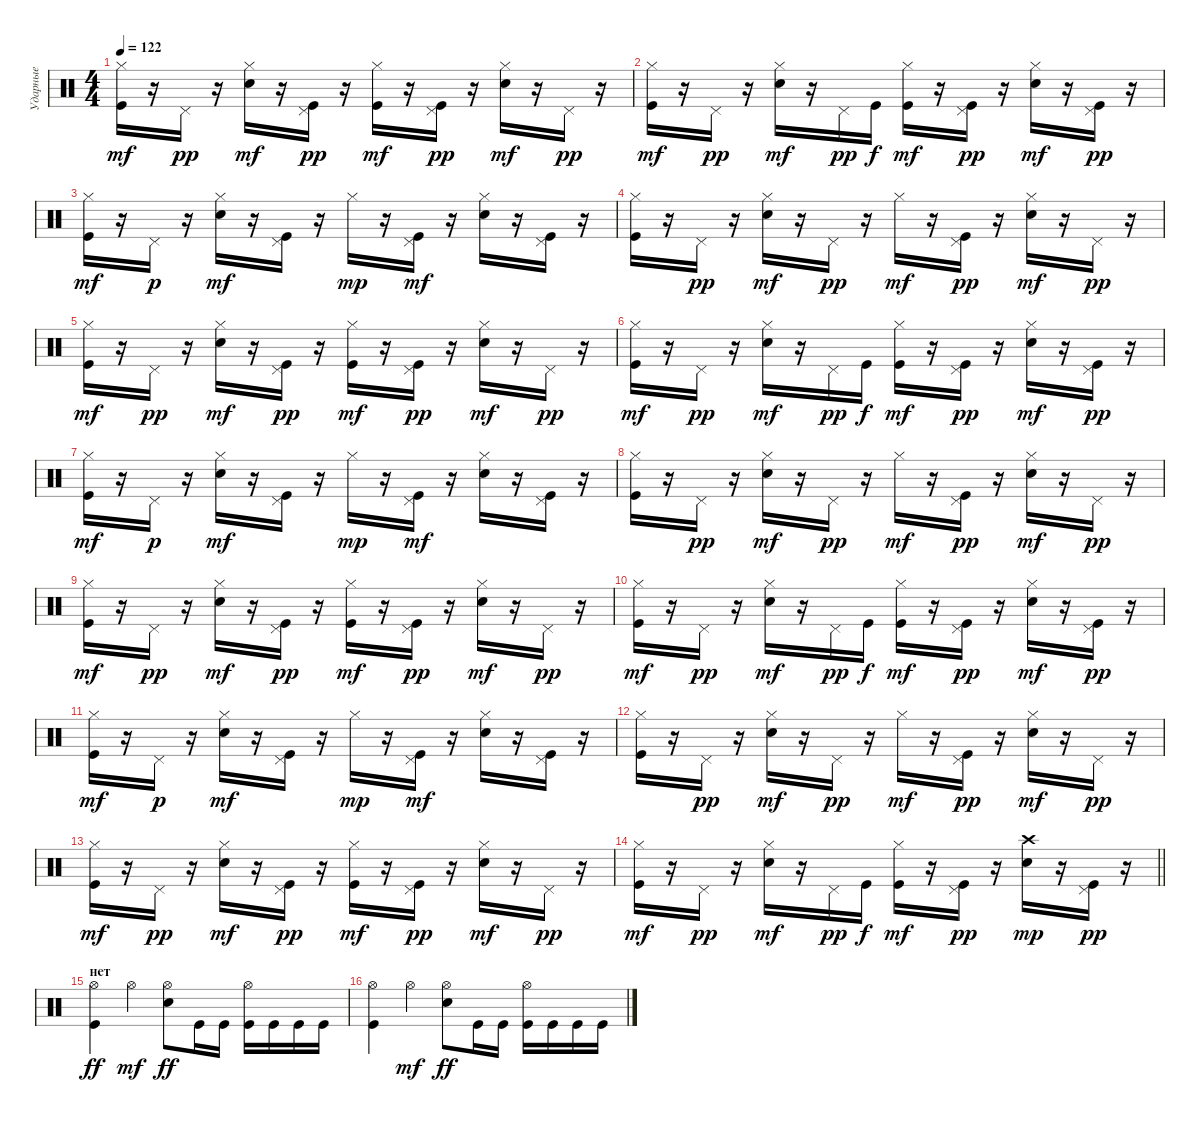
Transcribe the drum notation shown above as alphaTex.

\track ("Ударные" "Ударные") {instrument percussion}
\staff {score}
\articulation defaults
\ts (4 4)
\tempo 122
\clef neutral
\ks c
("Hi-Hat (closed)" "Kick (hit)").16{dy mf} r.16 "Pedal Hi-Hat (hit)".16{dy pp} r.16 ("Hi-Hat (closed)" "Electric Snare (hit)").16{dy mf} r.16 ("Pedal Hi-Hat (hit)" "Kick (hit)").16{dy pp} r.16 ("Hi-Hat (closed)" "Kick (hit)").16{dy mf} r.16 ("Pedal Hi-Hat (hit)" "Kick (hit)").16{dy pp} r.16 ("Hi-Hat (closed)" "Electric Snare (hit)").16{dy mf} r.16 "Pedal Hi-Hat (hit)".16{dy pp} r.16 |
("Hi-Hat (closed)" "Kick (hit)").16{dy mf} r.16 "Pedal Hi-Hat (hit)".16{dy pp} r.16 ("Hi-Hat (closed)" "Electric Snare (hit)").16{dy mf} r.16 "Pedal Hi-Hat (hit)".16{dy pp} "Kick (hit)".16{dy f} ("Hi-Hat (closed)" "Kick (hit)").16{dy mf} r.16 ("Pedal Hi-Hat (hit)" "Kick (hit)").16{dy pp} r.16 ("Hi-Hat (closed)" "Electric Snare (hit)").16{dy mf} r.16 ("Pedal Hi-Hat (hit)" "Kick (hit)").16{dy pp} r.16 |
("Hi-Hat (closed)" "Kick (hit)").16{dy mf} r.16 "Pedal Hi-Hat (hit)".16{dy p} r.16 ("Hi-Hat (closed)" "Electric Snare (hit)").16{dy mf} r.16 ("Pedal Hi-Hat (hit)" "Kick (hit)").16 r.16 "Hi-Hat (closed)".16{dy mp} r.16 ("Pedal Hi-Hat (hit)" "Kick (hit)").16{dy mf} r.16 ("Hi-Hat (closed)" "Electric Snare (hit)").16 r.16 ("Pedal Hi-Hat (hit)" "Kick (hit)").16 r.16 |
("Hi-Hat (closed)" "Kick (hit)").16 r.16 "Pedal Hi-Hat (hit)".16{dy pp} r.16 ("Hi-Hat (closed)" "Electric Snare (hit)").16{dy mf} r.16 "Pedal Hi-Hat (hit)".16{dy pp} r.16 "Hi-Hat (closed)".16{dy mf} r.16 ("Pedal Hi-Hat (hit)" "Kick (hit)").16{dy pp} r.16 ("Hi-Hat (closed)" "Electric Snare (hit)").16{dy mf} r.16 "Pedal Hi-Hat (hit)".16{dy pp} r.16 |
("Hi-Hat (closed)" "Kick (hit)").16{dy mf} r.16 "Pedal Hi-Hat (hit)".16{dy pp} r.16 ("Hi-Hat (closed)" "Electric Snare (hit)").16{dy mf} r.16 ("Pedal Hi-Hat (hit)" "Kick (hit)").16{dy pp} r.16 ("Hi-Hat (closed)" "Kick (hit)").16{dy mf} r.16 ("Pedal Hi-Hat (hit)" "Kick (hit)").16{dy pp} r.16 ("Hi-Hat (closed)" "Electric Snare (hit)").16{dy mf} r.16 "Pedal Hi-Hat (hit)".16{dy pp} r.16 |
("Hi-Hat (closed)" "Kick (hit)").16{dy mf} r.16 "Pedal Hi-Hat (hit)".16{dy pp} r.16 ("Hi-Hat (closed)" "Electric Snare (hit)").16{dy mf} r.16 "Pedal Hi-Hat (hit)".16{dy pp} "Kick (hit)".16{dy f} ("Hi-Hat (closed)" "Kick (hit)").16{dy mf} r.16 ("Pedal Hi-Hat (hit)" "Kick (hit)").16{dy pp} r.16 ("Hi-Hat (closed)" "Electric Snare (hit)").16{dy mf} r.16 ("Pedal Hi-Hat (hit)" "Kick (hit)").16{dy pp} r.16 |
("Hi-Hat (closed)" "Kick (hit)").16{dy mf} r.16 "Pedal Hi-Hat (hit)".16{dy p} r.16 ("Hi-Hat (closed)" "Electric Snare (hit)").16{dy mf} r.16 ("Pedal Hi-Hat (hit)" "Kick (hit)").16 r.16 "Hi-Hat (closed)".16{dy mp} r.16 ("Pedal Hi-Hat (hit)" "Kick (hit)").16{dy mf} r.16 ("Hi-Hat (closed)" "Electric Snare (hit)").16 r.16 ("Pedal Hi-Hat (hit)" "Kick (hit)").16 r.16 |
("Hi-Hat (closed)" "Kick (hit)").16 r.16 "Pedal Hi-Hat (hit)".16{dy pp} r.16 ("Hi-Hat (closed)" "Electric Snare (hit)").16{dy mf} r.16 "Pedal Hi-Hat (hit)".16{dy pp} r.16 "Hi-Hat (closed)".16{dy mf} r.16 ("Pedal Hi-Hat (hit)" "Kick (hit)").16{dy pp} r.16 ("Hi-Hat (closed)" "Electric Snare (hit)").16{dy mf} r.16 "Pedal Hi-Hat (hit)".16{dy pp} r.16 |
("Hi-Hat (closed)" "Kick (hit)").16{dy mf} r.16 "Pedal Hi-Hat (hit)".16{dy pp} r.16 ("Hi-Hat (closed)" "Electric Snare (hit)").16{dy mf} r.16 ("Pedal Hi-Hat (hit)" "Kick (hit)").16{dy pp} r.16 ("Hi-Hat (closed)" "Kick (hit)").16{dy mf} r.16 ("Pedal Hi-Hat (hit)" "Kick (hit)").16{dy pp} r.16 ("Hi-Hat (closed)" "Electric Snare (hit)").16{dy mf} r.16 "Pedal Hi-Hat (hit)".16{dy pp} r.16 |
("Hi-Hat (closed)" "Kick (hit)").16{dy mf} r.16 "Pedal Hi-Hat (hit)".16{dy pp} r.16 ("Hi-Hat (closed)" "Electric Snare (hit)").16{dy mf} r.16 "Pedal Hi-Hat (hit)".16{dy pp} "Kick (hit)".16{dy f} ("Hi-Hat (closed)" "Kick (hit)").16{dy mf} r.16 ("Pedal Hi-Hat (hit)" "Kick (hit)").16{dy pp} r.16 ("Hi-Hat (closed)" "Electric Snare (hit)").16{dy mf} r.16 ("Pedal Hi-Hat (hit)" "Kick (hit)").16{dy pp} r.16 |
("Hi-Hat (closed)" "Kick (hit)").16{dy mf} r.16 "Pedal Hi-Hat (hit)".16{dy p} r.16 ("Hi-Hat (closed)" "Electric Snare (hit)").16{dy mf} r.16 ("Pedal Hi-Hat (hit)" "Kick (hit)").16 r.16 "Hi-Hat (closed)".16{dy mp} r.16 ("Pedal Hi-Hat (hit)" "Kick (hit)").16{dy mf} r.16 ("Hi-Hat (closed)" "Electric Snare (hit)").16 r.16 ("Pedal Hi-Hat (hit)" "Kick (hit)").16 r.16 |
("Hi-Hat (closed)" "Kick (hit)").16 r.16 "Pedal Hi-Hat (hit)".16{dy pp} r.16 ("Hi-Hat (closed)" "Electric Snare (hit)").16{dy mf} r.16 "Pedal Hi-Hat (hit)".16{dy pp} r.16 "Hi-Hat (closed)".16{dy mf} r.16 ("Pedal Hi-Hat (hit)" "Kick (hit)").16{dy pp} r.16 ("Hi-Hat (closed)" "Electric Snare (hit)").16{dy mf} r.16 "Pedal Hi-Hat (hit)".16{dy pp} r.16 |
("Hi-Hat (closed)" "Kick (hit)").16{dy mf} r.16 "Pedal Hi-Hat (hit)".16{dy pp} r.16 ("Hi-Hat (closed)" "Electric Snare (hit)").16{dy mf} r.16 ("Pedal Hi-Hat (hit)" "Kick (hit)").16{dy pp} r.16 ("Hi-Hat (closed)" "Kick (hit)").16{dy mf} r.16 ("Pedal Hi-Hat (hit)" "Kick (hit)").16{dy pp} r.16 ("Hi-Hat (closed)" "Electric Snare (hit)").16{dy mf} r.16 "Pedal Hi-Hat (hit)".16{dy pp} r.16 |
\barLineRight lightlight
("Hi-Hat (closed)" "Kick (hit)").16{dy mf} r.16 "Pedal Hi-Hat (hit)".16{dy pp} r.16 ("Hi-Hat (closed)" "Electric Snare (hit)").16{dy mf} r.16 "Pedal Hi-Hat (hit)".16{dy pp} "Kick (hit)".16{dy f} ("Hi-Hat (closed)" "Kick (hit)").16{dy mf} r.16 ("Pedal Hi-Hat (hit)" "Kick (hit)").16{dy pp} r.16 ("Crash high (hit)" "Electric Snare (hit)").16{dy mp} r.16 ("Pedal Hi-Hat (hit)" "Kick (hit)").16{dy pp} r.16 |
\section ("" "нет")
("Hi-Hat (open)" "Kick (hit)").4{dy ff} "Hi-Hat (open)".4{dy mf} ("Hi-Hat (open)" "Electric Snare (hit)").8{dy ff} "Kick (hit)".16 "Kick (hit)".16 ("Hi-Hat (open)" "Kick (hit)").16 "Kick (hit)".16 "Kick (hit)".16 "Kick (hit)".16 |
("Hi-Hat (open)" "Kick (hit)").4 "Hi-Hat (open)".4{dy mf} ("Hi-Hat (open)" "Electric Snare (hit)").8{dy ff} "Kick (hit)".16 "Kick (hit)".16 ("Hi-Hat (open)" "Kick (hit)").16 "Kick (hit)".16 "Kick (hit)".16 "Kick (hit)".16
